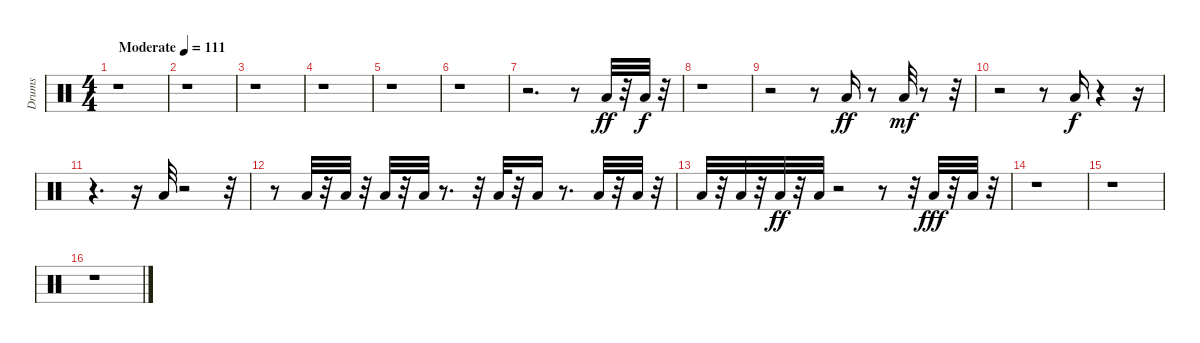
\track ("Drums" "Drums") {instrument percussion}
\staff {score}
\articulation defaults
\ts (4 4)
\tempo (111 "Moderate")
\clef neutral
\ks c
r.1{dy ff} |
r.1 |
r.1 |
r.1 |
r.1 |
r.1 |
r.2{d} r.8 "Low Tom (hit)".32 r.32 "Low Tom (hit)".32{dy f} r.32 |
r.1 |
r.2 r.8 "Low Tom (hit)".16{dy ff} r.8 "Low Tom (hit)".32{dy mf} r.8 r.32 |
r.2 r.8 "Low Tom (hit)".16{dy f} r.4 r.16 |
r.4{d} r.16 "Low Tom (hit)".32 r.2 r.32 |
r.8 "Low Tom (hit)".32 r.32 "Low Tom (hit)".32 r.32 "Low Tom (hit)".32 r.32 "Low Tom (hit)".32 r.8{d} r.32 "Low Tom (hit)".32 r.32 "Low Tom (hit)".16 r.8{d} "Low Tom (hit)".32 r.32 "Low Tom (hit)".32 r.32 |
"Low Tom (hit)".32 r.32 "Low Tom (hit)".32 r.32 "Low Tom (hit)".32{dy ff} r.32 "Low Tom (hit)".32 r.2 r.8 r.32 "Low Tom (hit)".32{dy fff} r.32 "Low Tom (hit)".32 r.32 |
r.1 |
r.1 |
r.1
